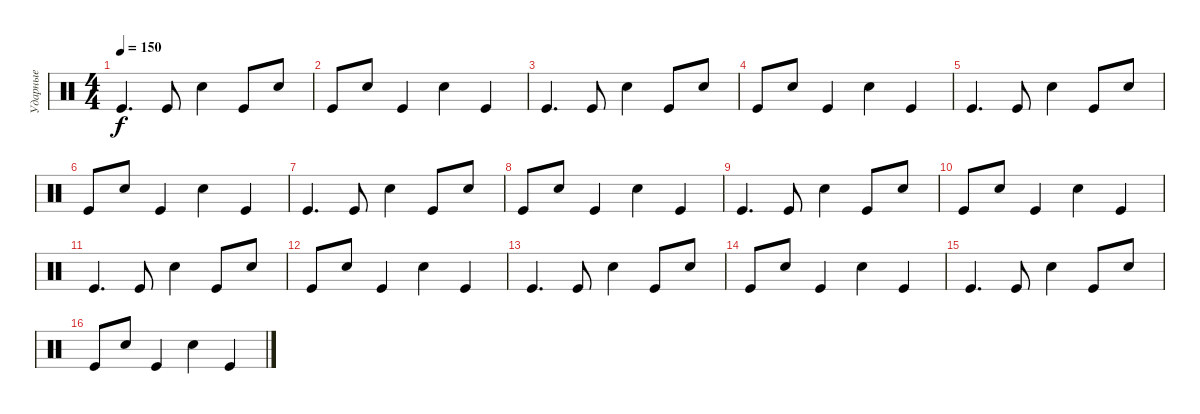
\track ("Ударные" "Ударные") {instrument percussion}
\staff {score}
\articulation defaults
\ts (4 4)
\tempo 150
\clef neutral
\ks c "Kick (hit)".4{d dy f} "Kick (hit)".8 "Electric Snare (hit)".4 "Kick (hit)".8 "Electric Snare (hit)".8
|
"Kick (hit)".8 "Electric Snare (hit)".8 "Kick (hit)".4 "Electric Snare (hit)".4 "Kick (hit)".4 |
"Kick (hit)".4{d} "Kick (hit)".8 "Electric Snare (hit)".4 "Kick (hit)".8 "Electric Snare (hit)".8 |
"Kick (hit)".8 "Electric Snare (hit)".8 "Kick (hit)".4 "Electric Snare (hit)".4 "Kick (hit)".4 |
"Kick (hit)".4{d} "Kick (hit)".8 "Electric Snare (hit)".4 "Kick (hit)".8 "Electric Snare (hit)".8 |
"Kick (hit)".8 "Electric Snare (hit)".8 "Kick (hit)".4 "Electric Snare (hit)".4 "Kick (hit)".4 |
"Kick (hit)".4{d} "Kick (hit)".8 "Electric Snare (hit)".4 "Kick (hit)".8 "Electric Snare (hit)".8 |
"Kick (hit)".8 "Electric Snare (hit)".8 "Kick (hit)".4 "Electric Snare (hit)".4 "Kick (hit)".4 |
"Kick (hit)".4{d} "Kick (hit)".8 "Electric Snare (hit)".4 "Kick (hit)".8 "Electric Snare (hit)".8 |
"Kick (hit)".8 "Electric Snare (hit)".8 "Kick (hit)".4 "Electric Snare (hit)".4 "Kick (hit)".4 |
"Kick (hit)".4{d} "Kick (hit)".8 "Electric Snare (hit)".4 "Kick (hit)".8 "Electric Snare (hit)".8 |
"Kick (hit)".8 "Electric Snare (hit)".8 "Kick (hit)".4 "Electric Snare (hit)".4 "Kick (hit)".4 |
"Kick (hit)".4{d} "Kick (hit)".8 "Electric Snare (hit)".4 "Kick (hit)".8 "Electric Snare (hit)".8 |
"Kick (hit)".8 "Electric Snare (hit)".8 "Kick (hit)".4 "Electric Snare (hit)".4 "Kick (hit)".4 |
"Kick (hit)".4{d} "Kick (hit)".8 "Electric Snare (hit)".4 "Kick (hit)".8 "Electric Snare (hit)".8 |
"Kick (hit)".8 "Electric Snare (hit)".8 "Kick (hit)".4 "Electric Snare (hit)".4 "Kick (hit)".4
